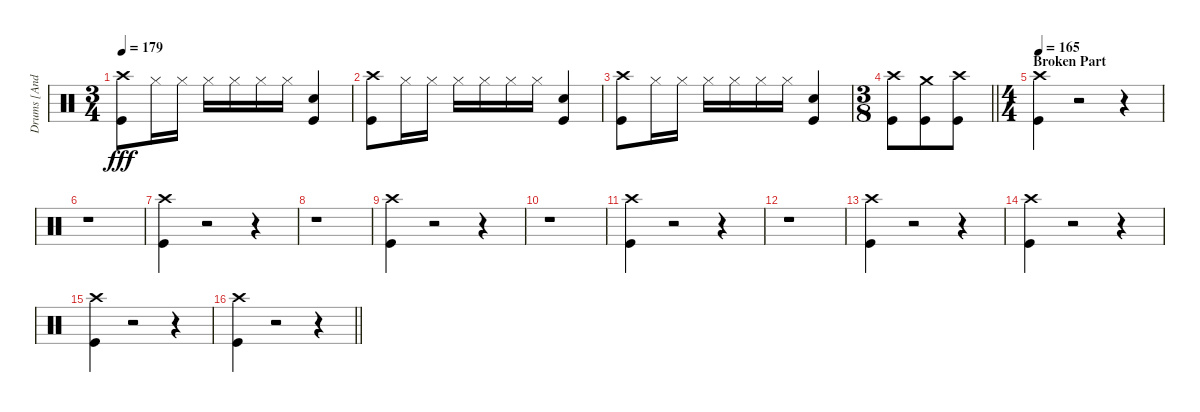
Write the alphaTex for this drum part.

\track ("Drums [Andrew Forsman]" "Drums [And") {instrument percussion}
\staff {score}
\articulation defaults
\ts (3 4)
\tempo 179
\clef neutral
\ks c
("Crash high (hit)" "Kick (hit)").8{dy fff} "Hi-Hat (closed)".16 "Hi-Hat (closed)".16 "Hi-Hat (closed)".16 "Hi-Hat (closed)".16 "Hi-Hat (closed)".16 "Hi-Hat (closed)".16 ("Snare (hit) 2" "Kick (hit)").4 |
("Crash high (hit)" "Kick (hit)").8 "Hi-Hat (closed)".16 "Hi-Hat (closed)".16 "Hi-Hat (closed)".16 "Hi-Hat (closed)".16 "Hi-Hat (closed)".16 "Hi-Hat (closed)".16 ("Snare (hit) 2" "Kick (hit)").4 |
("Crash high (hit)" "Kick (hit)").8 "Hi-Hat (closed)".16 "Hi-Hat (closed)".16 "Hi-Hat (closed)".16 "Hi-Hat (closed)".16 "Hi-Hat (closed)".16 "Hi-Hat (closed)".16 ("Snare (hit) 2" "Kick (hit)").4 |
\ts (3 8)
\barLineRight lightlight
("Crash high (hit)" "Kick (hit)").8 ("Crash medium (hit)" "Kick (hit)").8 ("Crash high (hit)" "Kick (hit)").8 |
\ts (4 4)
\section ("" "Broken Part")
\tempo 165
("Crash high (hit)" "Kick (hit)").4 r.2 r.4 |
r.1 |
("Crash high (hit)" "Kick (hit)").4 r.2 r.4 |
r.1 |
("Crash high (hit)" "Kick (hit)").4 r.2 r.4 |
r.1 |
("Crash high (hit)" "Kick (hit)").4 r.2 r.4 |
r.1 |
("Crash high (hit)" "Kick (hit)").4 r.2 r.4 |
("Crash high (hit)" "Kick (hit)").4 r.2 r.4 |
("Crash high (hit)" "Kick (hit)").4 r.2 r.4 |
\barLineRight lightlight
("Crash high (hit)" "Kick (hit)").4 r.2 r.4
